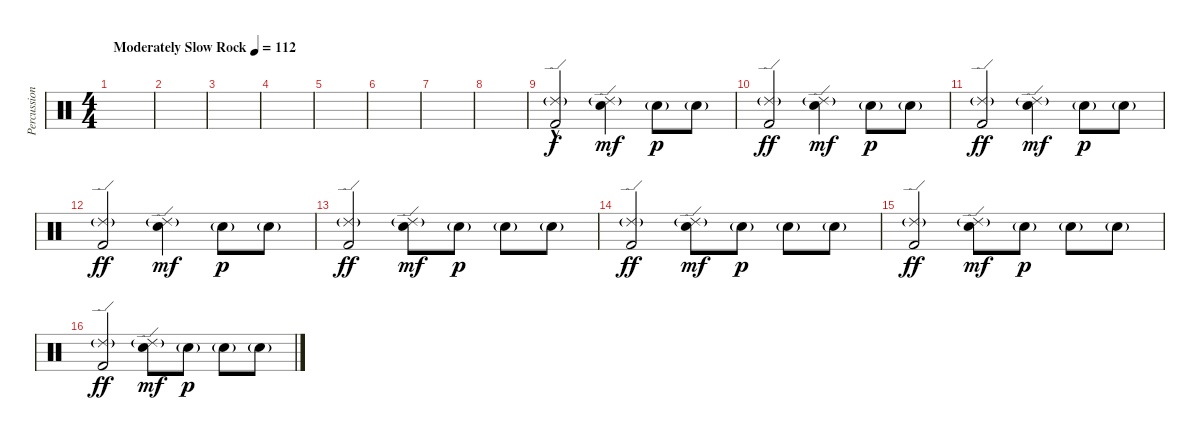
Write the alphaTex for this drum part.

\track ("Percussion" "Percussion") {instrument percussion}
\staff {score}
\articulation defaults
\ts (4 4)
\tempo (112 "Moderately Slow Rock")
\clef neutral
\ks c
|
|
|
|
|
|
|
|
("Ride (edge) 2"{g} "Kick (hit) 2"{hac}).2 ("Ride (edge) 2"{g} "Electric Snare (hit)").4{dy mf} "Electric Snare (hit)"{g}.8{dy p} "Electric Snare (hit)"{g}.8 |
("Ride (edge) 2"{g} "Kick (hit) 2").2{dy ff} ("Ride (edge) 2"{g} "Electric Snare (hit)").4{dy mf} "Electric Snare (hit)"{g}.8{dy p} "Electric Snare (hit)"{g}.8 |
("Ride (edge) 2"{g} "Kick (hit) 2").2{dy ff} ("Ride (edge) 2"{g} "Electric Snare (hit)").4{dy mf} "Electric Snare (hit)"{g}.8{dy p} "Electric Snare (hit)"{g}.8 |
("Ride (edge) 2"{g} "Kick (hit) 2").2{dy ff} ("Ride (edge) 2"{g} "Electric Snare (hit)").4{dy mf} "Electric Snare (hit)"{g}.8{dy p} "Electric Snare (hit)"{g}.8 |
("Ride (edge) 2"{g} "Kick (hit) 2").2{dy ff} ("Ride (edge) 2"{g} "Electric Snare (hit)").8{dy mf} "Electric Snare (hit)"{g}.8{dy p} "Electric Snare (hit)"{g}.8 "Electric Snare (hit)"{g}.8 |
("Ride (edge) 2"{g} "Kick (hit) 2").2{dy ff} ("Ride (edge) 2"{g} "Electric Snare (hit)").8{dy mf} "Electric Snare (hit)"{g}.8{dy p} "Electric Snare (hit)"{g}.8 "Electric Snare (hit)"{g}.8 |
("Ride (edge) 2"{g} "Kick (hit) 2").2{dy ff} ("Ride (edge) 2"{g} "Electric Snare (hit)").8{dy mf} "Electric Snare (hit)"{g}.8{dy p} "Electric Snare (hit)"{g}.8 "Electric Snare (hit)"{g}.8 |
("Ride (edge) 2"{g} "Kick (hit) 2").2{dy ff} ("Ride (edge) 2"{g} "Electric Snare (hit)").8{dy mf} "Electric Snare (hit)"{g}.8{dy p} "Electric Snare (hit)"{g}.8 "Electric Snare (hit)"{g}.8
